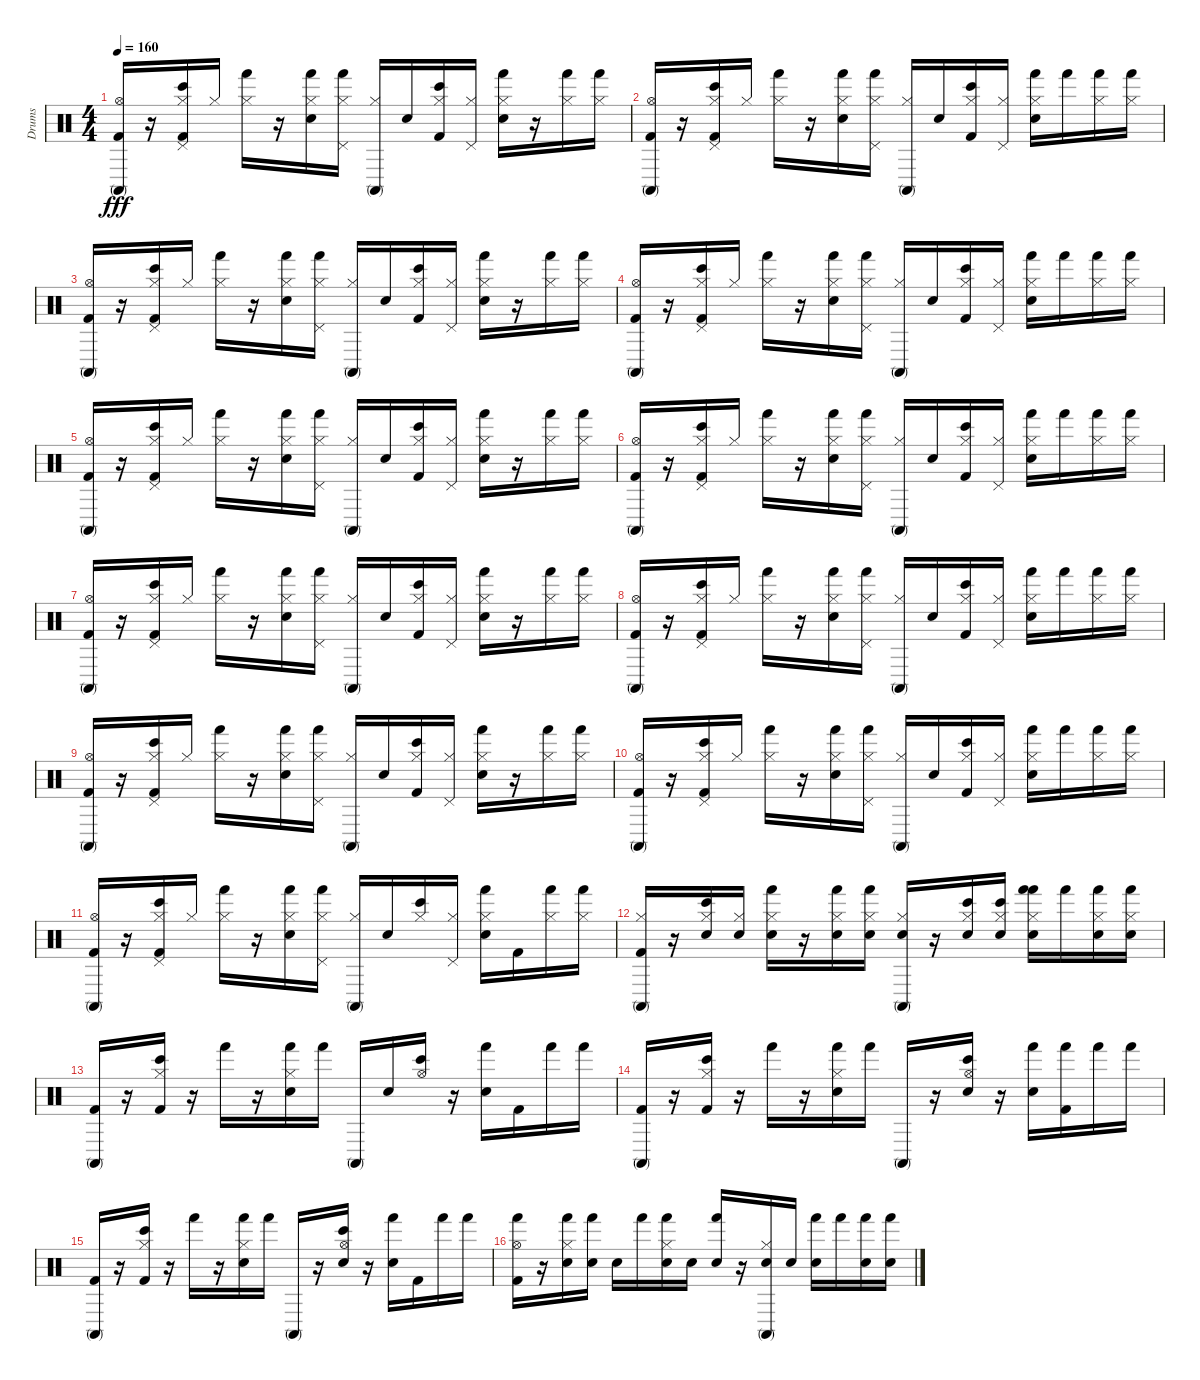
\track ("Drums" "Drums") {instrument percussion}
\staff {score}
\articulation defaults
\ts (4 4)
\tempo 160
\clef neutral
\ks c
("Conga high (mute)" "Hi-Hat (open)" "Kick (hit) 2").16{dy fff} r.16 ("Pedal Hi-Hat (hit)" "Hi-Hat (closed)" "Bongo High (hit)" "Kick (hit) 2").16 "Hi-Hat (closed)".16 ("Hi-Hat (closed)" "Hand (hit)").16 r.16 ("Hand (hit)" "Electric Snare (hit)" "Hi-Hat (closed)").16 ("Pedal Hi-Hat (hit)" "Hand (hit)" "Hi-Hat (closed)").16 ("Hi-Hat (closed)" "Conga high (mute)").16 "Electric Snare (hit)".16 ("Kick (hit) 2" "Bongo High (hit)" "Hi-Hat (closed)").16 ("Hi-Hat (closed)" "Pedal Hi-Hat (hit)").16 ("Hand (hit)" "Electric Snare (hit)" "Hi-Hat (closed)").16 r.16 ("Hi-Hat (closed)" "Hand (hit)").16 ("Hi-Hat (closed)" "Hand (hit)").16 |
("Hi-Hat (open)" "Kick (hit) 2" "Conga high (mute)").16 r.16 ("Pedal Hi-Hat (hit)" "Bongo High (hit)" "Kick (hit) 2" "Hi-Hat (closed)").16 "Hi-Hat (closed)".16 ("Hi-Hat (closed)" "Hand (hit)").16 r.16 ("Electric Snare (hit)" "Hand (hit)" "Hi-Hat (closed)").16 ("Hi-Hat (closed)" "Hand (hit)" "Pedal Hi-Hat (hit)").16 ("Hi-Hat (closed)" "Conga high (mute)").16 "Electric Snare (hit)".16 ("Hi-Hat (closed)" "Bongo High (hit)" "Kick (hit) 2").16 ("Pedal Hi-Hat (hit)" "Hi-Hat (closed)").16 ("Electric Snare (hit)" "Hi-Hat (closed)" "Hand (hit)").16 "Hand (hit)".16 ("Hi-Hat (closed)" "Hand (hit)").16 ("Hand (hit)" "Hi-Hat (closed)").16 |
("Kick (hit) 2" "Hi-Hat (open)" "Conga high (mute)").16 r.16 ("Kick (hit) 2" "Bongo High (hit)" "Pedal Hi-Hat (hit)" "Hi-Hat (closed)").16 "Hi-Hat (closed)".16 ("Hi-Hat (closed)" "Hand (hit)").16 r.16 ("Hand (hit)" "Electric Snare (hit)" "Hi-Hat (closed)").16 ("Hand (hit)" "Hi-Hat (closed)" "Pedal Hi-Hat (hit)").16 ("Hi-Hat (closed)" "Conga high (mute)").16 "Electric Snare (hit)".16 ("Bongo High (hit)" "Kick (hit) 2" "Hi-Hat (closed)").16 ("Hi-Hat (closed)" "Pedal Hi-Hat (hit)").16 ("Hand (hit)" "Electric Snare (hit)" "Hi-Hat (closed)").16 r.16 ("Hand (hit)" "Hi-Hat (closed)").16 ("Hi-Hat (closed)" "Hand (hit)").16 |
("Hi-Hat (open)" "Kick (hit) 2" "Conga high (mute)").16 r.16 ("Hi-Hat (closed)" "Bongo High (hit)" "Pedal Hi-Hat (hit)" "Kick (hit) 2").16 "Hi-Hat (closed)".16 ("Hi-Hat (closed)" "Hand (hit)").16 r.16 ("Hand (hit)" "Electric Snare (hit)" "Hi-Hat (closed)").16 ("Hi-Hat (closed)" "Pedal Hi-Hat (hit)" "Hand (hit)").16 ("Hi-Hat (closed)" "Conga high (mute)").16 "Electric Snare (hit)".16 ("Bongo High (hit)" "Hi-Hat (closed)" "Kick (hit) 2").16 ("Hi-Hat (closed)" "Pedal Hi-Hat (hit)").16 ("Hand (hit)" "Hi-Hat (closed)" "Electric Snare (hit)").16 "Hand (hit)".16 ("Hand (hit)" "Hi-Hat (closed)").16 ("Hi-Hat (closed)" "Hand (hit)").16 |
("Conga high (mute)" "Kick (hit) 2" "Hi-Hat (open)").16 r.16 ("Hi-Hat (closed)" "Bongo High (hit)" "Kick (hit) 2" "Pedal Hi-Hat (hit)").16 "Hi-Hat (closed)".16 ("Hi-Hat (closed)" "Hand (hit)").16 r.16 ("Hi-Hat (closed)" "Hand (hit)" "Electric Snare (hit)").16 ("Hi-Hat (closed)" "Hand (hit)" "Pedal Hi-Hat (hit)").16 ("Hi-Hat (closed)" "Conga high (mute)").16 "Electric Snare (hit)".16 ("Hi-Hat (closed)" "Kick (hit) 2" "Bongo High (hit)").16 ("Hi-Hat (closed)" "Pedal Hi-Hat (hit)").16 ("Electric Snare (hit)" "Hand (hit)" "Hi-Hat (closed)").16 r.16 ("Hand (hit)" "Hi-Hat (closed)").16 ("Hi-Hat (closed)" "Hand (hit)").16 |
("Conga high (mute)" "Hi-Hat (open)" "Kick (hit) 2").16 r.16 ("Bongo High (hit)" "Pedal Hi-Hat (hit)" "Kick (hit) 2" "Hi-Hat (closed)").16 "Hi-Hat (closed)".16 ("Hand (hit)" "Hi-Hat (closed)").16 r.16 ("Electric Snare (hit)" "Hi-Hat (closed)" "Hand (hit)").16 ("Hand (hit)" "Hi-Hat (closed)" "Pedal Hi-Hat (hit)").16 ("Hi-Hat (closed)" "Conga high (mute)").16 "Electric Snare (hit)".16 ("Bongo High (hit)" "Kick (hit) 2" "Hi-Hat (closed)").16 ("Hi-Hat (closed)" "Pedal Hi-Hat (hit)").16 ("Electric Snare (hit)" "Hi-Hat (closed)" "Hand (hit)").16 "Hand (hit)".16 ("Hi-Hat (closed)" "Hand (hit)").16 ("Hi-Hat (closed)" "Hand (hit)").16 |
("Kick (hit) 2" "Conga high (mute)" "Hi-Hat (open)").16 r.16 ("Pedal Hi-Hat (hit)" "Hi-Hat (closed)" "Bongo High (hit)" "Kick (hit) 2").16 "Hi-Hat (closed)".16 ("Hand (hit)" "Hi-Hat (closed)").16 r.16 ("Hand (hit)" "Hi-Hat (closed)" "Electric Snare (hit)").16 ("Hand (hit)" "Hi-Hat (closed)" "Pedal Hi-Hat (hit)").16 ("Hi-Hat (closed)" "Conga high (mute)").16 "Electric Snare (hit)".16 ("Bongo High (hit)" "Hi-Hat (closed)" "Kick (hit) 2").16 ("Pedal Hi-Hat (hit)" "Hi-Hat (closed)").16 ("Hi-Hat (closed)" "Hand (hit)" "Electric Snare (hit)").16 r.16 ("Hand (hit)" "Hi-Hat (closed)").16 ("Hand (hit)" "Hi-Hat (closed)").16 |
("Hi-Hat (open)" "Kick (hit) 2" "Conga high (mute)").16 r.16 ("Hi-Hat (closed)" "Kick (hit) 2" "Pedal Hi-Hat (hit)" "Bongo High (hit)").16 "Hi-Hat (closed)".16 ("Hand (hit)" "Hi-Hat (closed)").16 r.16 ("Hi-Hat (closed)" "Electric Snare (hit)" "Hand (hit)").16 ("Hand (hit)" "Pedal Hi-Hat (hit)" "Hi-Hat (closed)").16 ("Conga high (mute)" "Hi-Hat (closed)").16 "Electric Snare (hit)".16 ("Bongo High (hit)" "Kick (hit) 2" "Hi-Hat (closed)").16 ("Hi-Hat (closed)" "Pedal Hi-Hat (hit)").16 ("Electric Snare (hit)" "Hi-Hat (closed)" "Hand (hit)").16 "Hand (hit)".16 ("Hi-Hat (closed)" "Hand (hit)").16 ("Hi-Hat (closed)" "Hand (hit)").16 |
("Conga high (mute)" "Kick (hit) 2" "Hi-Hat (open)").16 r.16 ("Hi-Hat (closed)" "Pedal Hi-Hat (hit)" "Kick (hit) 2" "Bongo High (hit)").16 "Hi-Hat (closed)".16 ("Hi-Hat (closed)" "Hand (hit)").16 r.16 ("Hi-Hat (closed)" "Hand (hit)" "Electric Snare (hit)").16 ("Hi-Hat (closed)" "Hand (hit)" "Pedal Hi-Hat (hit)").16 ("Conga high (mute)" "Hi-Hat (closed)").16 "Electric Snare (hit)".16 ("Bongo High (hit)" "Hi-Hat (closed)" "Kick (hit) 2").16 ("Pedal Hi-Hat (hit)" "Hi-Hat (closed)").16 ("Hi-Hat (closed)" "Electric Snare (hit)" "Hand (hit)").16 r.16 ("Hand (hit)" "Hi-Hat (closed)").16 ("Hand (hit)" "Hi-Hat (closed)").16 |
("Conga high (mute)" "Kick (hit) 2" "Hi-Hat (open)").16 r.16 ("Bongo High (hit)" "Hi-Hat (closed)" "Pedal Hi-Hat (hit)" "Kick (hit) 2").16 "Hi-Hat (closed)".16 ("Hand (hit)" "Hi-Hat (closed)").16 r.16 ("Hi-Hat (closed)" "Hand (hit)" "Electric Snare (hit)").16 ("Hi-Hat (closed)" "Hand (hit)" "Pedal Hi-Hat (hit)").16 ("Conga high (mute)" "Hi-Hat (closed)").16 "Electric Snare (hit)".16 ("Kick (hit) 2" "Hi-Hat (closed)" "Bongo High (hit)").16 ("Hi-Hat (closed)" "Pedal Hi-Hat (hit)").16 ("Hand (hit)" "Hi-Hat (closed)" "Electric Snare (hit)").16 "Hand (hit)".16 ("Hand (hit)" "Hi-Hat (closed)").16 ("Hand (hit)" "Hi-Hat (closed)").16 |
("Hi-Hat (open)" "Conga high (mute)" "Kick (hit) 2").16 r.16 ("Hi-Hat (closed)" "Bongo High (hit)" "Pedal Hi-Hat (hit)" "Kick (hit) 2").16 "Hi-Hat (closed)".16 ("Hi-Hat (closed)" "Hand (hit)").16 r.16 ("Electric Snare (hit)" "Hi-Hat (closed)" "Hand (hit)").16 ("Hi-Hat (closed)" "Pedal Hi-Hat (hit)" "Hand (hit)").16 ("Hi-Hat (closed)" "Conga high (mute)").16 "Electric Snare (hit)".16 ("Bongo High (hit)" "Hi-Hat (closed)").16 ("Hi-Hat (closed)" "Pedal Hi-Hat (hit)").16 ("Hand (hit)" "Electric Snare (hit)" "Hi-Hat (closed)").16 "Kick (hit) 2".16 ("Hand (hit)" "Hi-Hat (closed)").16 ("Hi-Hat (closed)" "Hand (hit)").16 |
("Kick (hit) 2" "Conga high (mute)" "Hi-Hat (closed)").16 r.16 ("Bongo High (hit)" "Hi-Hat (closed)" "Electric Snare (hit)").16 ("Hi-Hat (closed)" "Electric Snare (hit)").16 ("Hi-Hat (closed)" "Electric Snare (hit)" "Hand (hit)").16 r.16 ("Hand (hit)" "Electric Snare (hit)" "Hi-Hat (closed)").16 ("Electric Snare (hit)" "Hi-Hat (closed)" "Hand (hit)").16 ("Conga high (mute)" "Hi-Hat (closed)" "Electric Snare (hit)").16 r.16 ("Hi-Hat (closed)" "Electric Snare (hit)" "Bongo High (hit)").16 ("Hi-Hat (closed)" "Bongo High (hit)" "Electric Snare (hit)").16 ("Hi-Hat (closed)" "Electric Snare (hit)" "Hand (hit)" "Hand (hit)").16 "Hand (hit)".16 ("Electric Snare (hit)" "Hand (hit)" "Hi-Hat (closed)").16 ("Hand (hit)" "Electric Snare (hit)" "Hi-Hat (closed)").16 |
("Conga high (mute)" "Kick (hit) 2").16 r.16 ("Kick (hit) 2" "Hi-Hat (closed)" "Bongo High (hit)").16 r.16 "Hand (hit)".16 r.16 ("Electric Snare (hit)" "Hi-Hat (closed)" "Hand (hit)").16 "Hand (hit)".16 "Conga high (mute)".16 "Electric Snare (hit)".16 ("Bongo High (hit)" "Hi-Hat (open)").16 r.16 ("Electric Snare (hit)" "Hand (hit)").16 "Kick (hit) 2".16 "Hand (hit)".16 "Hand (hit)".16 |
("Kick (hit) 2" "Conga high (mute)").16 r.16 ("Kick (hit) 2" "Bongo High (hit)" "Hi-Hat (closed)").16 r.16 "Hand (hit)".16 r.16 ("Electric Snare (hit)" "Hi-Hat (closed)" "Hand (hit)").16 "Hand (hit)".16 "Conga high (mute)".16 r.16 ("Hi-Hat (open)" "Electric Snare (hit)" "Bongo High (hit)").16 r.16 ("Hand (hit)" "Electric Snare (hit)").16 ("Hand (hit)" "Kick (hit) 2").16 "Hand (hit)".16 "Hand (hit)".16 |
("Kick (hit) 2" "Conga high (mute)").16 r.16 ("Bongo High (hit)" "Kick (hit) 2" "Hi-Hat (closed)").16 r.16 "Hand (hit)".16 r.16 ("Hand (hit)" "Hi-Hat (closed)" "Electric Snare (hit)").16 "Hand (hit)".16 "Conga high (mute)".16 r.16 ("Bongo High (hit)" "Hi-Hat (open)" "Electric Snare (hit)").16 r.16 ("Electric Snare (hit)" "Hand (hit)").16 "Kick (hit) 2".16 "Hand (hit)".16 "Hand (hit)".16 |
("Kick (hit) 2" "Hand (hit)" "Hi-Hat (open)").16 r.16 ("Hand (hit)" "Hi-Hat (closed)" "Electric Snare (hit)").16 ("Hand (hit)" "Electric Snare (hit)").16 "Electric Snare (hit)".16 "Hand (hit)".16 ("Electric Snare (hit)" "Hand (hit)" "Hi-Hat (closed)").16 "Electric Snare (hit)".16 ("Electric Snare (hit)" "Hand (hit)").16 r.16 ("Conga high (mute)" "Hi-Hat (closed)" "Electric Snare (hit)").16 "Electric Snare (hit)".16 ("Electric Snare (hit)" "Hand (hit)").16 "Hand (hit)".16 ("Electric Snare (hit)" "Hand (hit)").16 ("Electric Snare (hit)" "Hand (hit)").16
